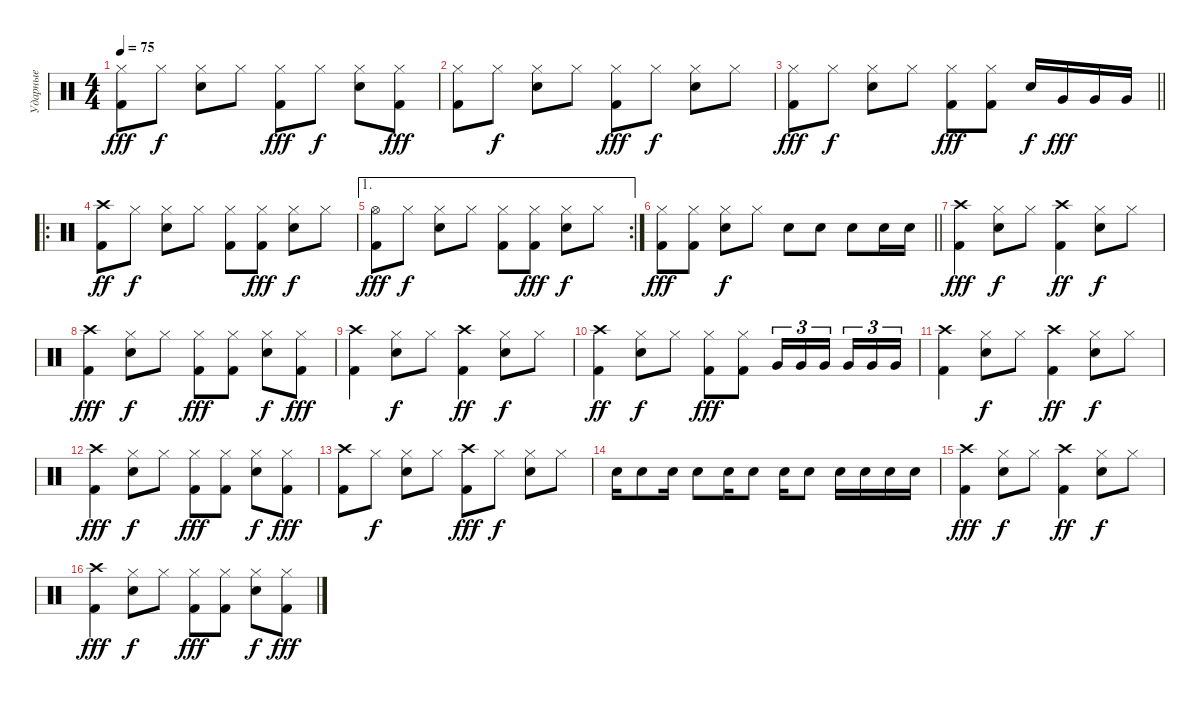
\track ("Ударные" "Ударные") {instrument percussion}
\staff
\articulation defaults
\ts (4 4)
\tempo 75
\clef neutral
\ks c
("Kick (hit) 2" "Hi-Hat (closed)").8{dy fff} "Hi-Hat (closed)".8{dy f} ("Snare (hit) 2" "Hi-Hat (closed)").8 "Hi-Hat (closed)".8 ("Kick (hit) 2" "Hi-Hat (closed)").8{dy fff} "Hi-Hat (closed)".8{dy f} ("Snare (hit) 2" "Hi-Hat (closed)").8 ("Kick (hit) 2" "Hi-Hat (closed)").8{dy fff} |
("Kick (hit) 2" "Hi-Hat (closed)").8 "Hi-Hat (closed)".8{dy f} ("Snare (hit) 2" "Hi-Hat (closed)").8 "Hi-Hat (closed)".8 ("Kick (hit) 2" "Hi-Hat (closed)").8{dy fff} "Hi-Hat (closed)".8{dy f} ("Snare (hit) 2" "Hi-Hat (closed)").8 "Hi-Hat (closed)".8 |
\barLineRight lightlight
("Kick (hit) 2" "Hi-Hat (closed)").8{dy fff} "Hi-Hat (closed)".8{dy f} ("Snare (hit) 2" "Hi-Hat (closed)").8 "Hi-Hat (closed)".8 ("Kick (hit) 2" "Hi-Hat (closed)").8{dy fff} ("Kick (hit) 2" "Hi-Hat (closed)").8 "Snare (hit) 2".16{dy f} "Very Low Tom (hit)".16{dy fff} "Very Low Tom (hit)".16 "Very Low Tom (hit)".16 |
\ro
("Kick (hit) 2" "Crash high (hit)").8{dy ff} "Hi-Hat (closed)".8{dy f} ("Snare (hit) 2" "Hi-Hat (closed)").8 "Hi-Hat (closed)".8 ("Kick (hit) 2" "Hi-Hat (closed)").8 ("Kick (hit) 2" "Hi-Hat (closed)").8{dy fff} ("Snare (hit) 2" "Hi-Hat (closed)").8{dy f} "Hi-Hat (closed)".8 |
\ae 1
\rc 2
("Kick (hit) 2" "Hi-Hat (open)").8{dy fff} "Hi-Hat (closed)".8{dy f} ("Snare (hit) 2" "Hi-Hat (closed)").8 "Hi-Hat (closed)".8 ("Kick (hit) 2" "Hi-Hat (closed)").8 ("Kick (hit) 2" "Hi-Hat (closed)").8{dy fff} ("Snare (hit) 2" "Hi-Hat (closed)").8{dy f} "Hi-Hat (closed)".8 |
\barLineRight lightlight
("Kick (hit) 2" "Hi-Hat (closed)").8{dy fff} ("Kick (hit) 2" "Hi-Hat (closed)").8 ("Snare (hit) 2" "Hi-Hat (closed)").8{dy f} "Hi-Hat (closed)".8 "Snare (hit) 2".8 "Snare (hit) 2".8 "Snare (hit) 2".8 "Snare (hit) 2".16 "Snare (hit) 2".16 |
("Kick (hit) 2" "Crash high (hit)").4{dy fff} ("Snare (hit) 2" "Hi-Hat (closed)").8{dy f} "Hi-Hat (closed)".8 ("Kick (hit) 2" "Crash high (hit)").4{dy ff} ("Snare (hit) 2" "Hi-Hat (closed)").8{dy f} "Hi-Hat (closed)".8 |
("Kick (hit) 2" "Crash high (hit)").4{dy fff} ("Snare (hit) 2" "Hi-Hat (closed)").8{dy f} "Hi-Hat (closed)".8 ("Kick (hit) 2" "Hi-Hat (closed)").8{dy fff} ("Kick (hit) 2" "Hi-Hat (closed)").8 ("Snare (hit) 2" "Hi-Hat (closed)").8{dy f} ("Kick (hit) 2" "Hi-Hat (closed)").8{dy fff} |
("Kick (hit) 2" "Crash high (hit)").4 ("Snare (hit) 2" "Hi-Hat (closed)").8{dy f} "Hi-Hat (closed)".8 ("Kick (hit) 2" "Crash high (hit)").4{dy ff} ("Snare (hit) 2" "Hi-Hat (closed)").8{dy f} "Hi-Hat (closed)".8 |
("Kick (hit) 2" "Crash high (hit)").4{dy ff} ("Snare (hit) 2" "Hi-Hat (closed)").8{dy f} "Hi-Hat (closed)".8 ("Kick (hit) 2" "Hi-Hat (closed)").8{dy fff} ("Kick (hit) 2" "Hi-Hat (closed)").8 "Very Low Tom (hit)".16{tu (3 2)} "Very Low Tom (hit)".16{tu (3 2)} "Very Low Tom (hit)".16{tu (3 2) beam splitsecondary} "Very Low Tom (hit)".16{tu (3 2)} "Very Low Tom (hit)".16{tu (3 2)} "Very Low Tom (hit)".16{tu (3 2)} |
("Kick (hit) 2" "Crash high (hit)").4 ("Snare (hit) 2" "Hi-Hat (closed)").8{dy f} "Hi-Hat (closed)".8 ("Kick (hit) 2" "Crash high (hit)").4{dy ff} ("Snare (hit) 2" "Hi-Hat (closed)").8{dy f} "Hi-Hat (closed)".8 |
("Kick (hit) 2" "Crash high (hit)").4{dy fff} ("Snare (hit) 2" "Hi-Hat (closed)").8{dy f} "Hi-Hat (closed)".8 ("Kick (hit) 2" "Hi-Hat (closed)").8{dy fff} ("Kick (hit) 2" "Hi-Hat (closed)").8 ("Snare (hit) 2" "Hi-Hat (closed)").8{dy f} ("Kick (hit) 2" "Hi-Hat (closed)").8{dy fff} |
("Kick (hit) 2" "Crash high (hit)").8 "Hi-Hat (closed)".8{dy f} ("Snare (hit) 2" "Hi-Hat (closed)").8 "Hi-Hat (closed)".8 ("Kick (hit) 2" "Crash high (hit)").8{dy fff} "Hi-Hat (closed)".8{dy f} ("Snare (hit) 2" "Hi-Hat (closed)").8 "Hi-Hat (closed)".8 |
"Snare (hit) 2".16 "Snare (hit) 2".8 "Snare (hit) 2".16 "Snare (hit) 2".8 "Snare (hit) 2".16 "Snare (hit) 2".8 "Snare (hit) 2".16 "Snare (hit) 2".8 "Snare (hit) 2".16 "Snare (hit) 2".16 "Snare (hit) 2".16 "Snare (hit) 2".16 |
("Kick (hit) 2" "Crash high (hit)").4{dy fff} ("Snare (hit) 2" "Hi-Hat (closed)").8{dy f} "Hi-Hat (closed)".8 ("Kick (hit) 2" "Crash high (hit)").4{dy ff} ("Snare (hit) 2" "Hi-Hat (closed)").8{dy f} "Hi-Hat (closed)".8 |
("Kick (hit) 2" "Crash high (hit)").4{dy fff} ("Snare (hit) 2" "Hi-Hat (closed)").8{dy f} "Hi-Hat (closed)".8 ("Kick (hit) 2" "Hi-Hat (closed)").8{dy fff} ("Kick (hit) 2" "Hi-Hat (closed)").8 ("Snare (hit) 2" "Hi-Hat (closed)").8{dy f} ("Kick (hit) 2" "Hi-Hat (closed)").8{dy fff}
